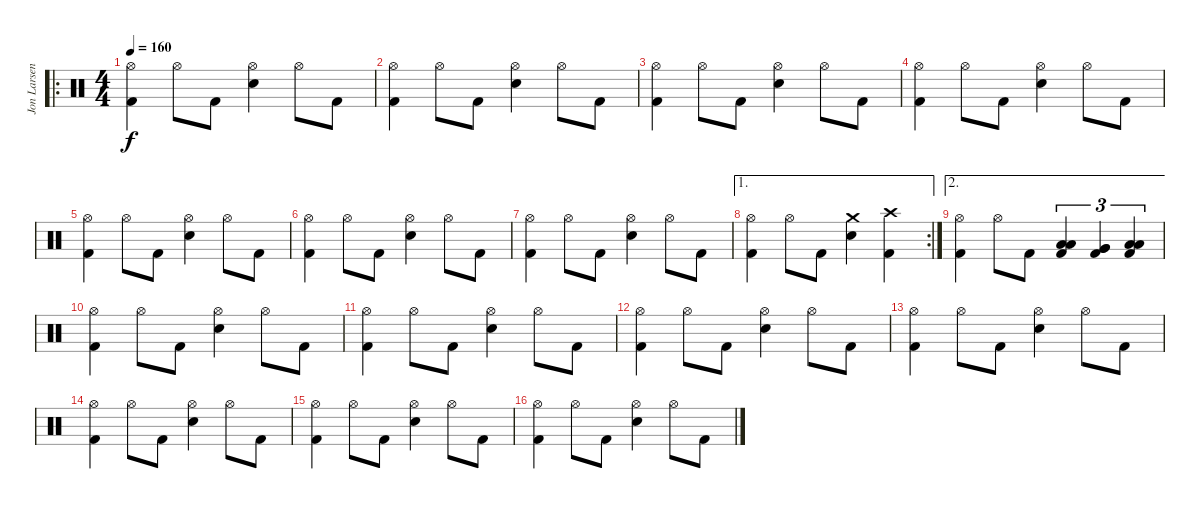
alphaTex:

\track ("Jon Larsen" "Jon Larsen") {instrument percussion}
\staff {score}
\articulation defaults
\ro
\ts (4 4)
\tempo 160
\clef neutral
\ks c
("Hi-Hat (open)" "Kick (hit) 2").4{dy f} "Hi-Hat (open)".8 "Kick (hit) 2".8 ("Hi-Hat (open)" "Electric Snare (hit)").4 "Hi-Hat (open)".8 "Kick (hit) 2".8 |
("Hi-Hat (open)" "Kick (hit) 2").4 "Hi-Hat (open)".8 "Kick (hit) 2".8 ("Hi-Hat (open)" "Electric Snare (hit)").4 "Hi-Hat (open)".8 "Kick (hit) 2".8 |
("Hi-Hat (open)" "Kick (hit) 2").4 "Hi-Hat (open)".8 "Kick (hit) 2".8 ("Hi-Hat (open)" "Electric Snare (hit)").4 "Hi-Hat (open)".8 "Kick (hit) 2".8 |
("Hi-Hat (open)" "Kick (hit) 2").4 "Hi-Hat (open)".8 "Kick (hit) 2".8 ("Hi-Hat (open)" "Electric Snare (hit)").4 "Hi-Hat (open)".8 "Kick (hit) 2".8 |
("Hi-Hat (open)" "Kick (hit) 2").4 "Hi-Hat (open)".8 "Kick (hit) 2".8 ("Hi-Hat (open)" "Electric Snare (hit)").4 "Hi-Hat (open)".8 "Kick (hit) 2".8 |
("Hi-Hat (open)" "Kick (hit) 2").4 "Hi-Hat (open)".8 "Kick (hit) 2".8 ("Hi-Hat (open)" "Electric Snare (hit)").4 "Hi-Hat (open)".8 "Kick (hit) 2".8 |
("Hi-Hat (open)" "Kick (hit) 2").4 "Hi-Hat (open)".8 "Kick (hit) 2".8 ("Hi-Hat (open)" "Electric Snare (hit)").4 "Hi-Hat (open)".8 "Kick (hit) 2".8 |
\ae 1
\rc 2
("Hi-Hat (open)" "Kick (hit) 2").4 "Hi-Hat (open)".8 "Kick (hit) 2".8 ("Crash medium (hit)" "Electric Snare (hit)").4 ("Crash high (hit)" "Kick (hit) 2").4 |
\ae 2
("Hi-Hat (open)" "Kick (hit) 2").4 "Hi-Hat (open)".8 "Kick (hit) 2".8 ("Low Tom (hit)" "Low Tom (hit)" "Kick (hit) 2").4{tu (3 2)} ("Very Low Tom (hit)" "Very Low Tom (hit)" "Kick (hit) 2").4{tu (3 2)} ("Low Floor Tom (hit)" "Low Floor Tom (hit)" "Kick (hit) 2").4{tu (3 2)} |
("Hi-Hat (open)" "Kick (hit) 2").4 "Hi-Hat (open)".8 "Kick (hit) 2".8 ("Hi-Hat (open)" "Electric Snare (hit)").4 "Hi-Hat (open)".8 "Kick (hit) 2".8 |
("Hi-Hat (open)" "Kick (hit) 2").4 "Hi-Hat (open)".8 "Kick (hit) 2".8 ("Hi-Hat (open)" "Electric Snare (hit)").4 "Hi-Hat (open)".8 "Kick (hit) 2".8 |
("Hi-Hat (open)" "Kick (hit) 2").4 "Hi-Hat (open)".8 "Kick (hit) 2".8 ("Hi-Hat (open)" "Electric Snare (hit)").4 "Hi-Hat (open)".8 "Kick (hit) 2".8 |
("Hi-Hat (open)" "Kick (hit) 2").4 "Hi-Hat (open)".8 "Kick (hit) 2".8 ("Hi-Hat (open)" "Electric Snare (hit)").4 "Hi-Hat (open)".8 "Kick (hit) 2".8 |
("Hi-Hat (open)" "Kick (hit) 2").4 "Hi-Hat (open)".8 "Kick (hit) 2".8 ("Hi-Hat (open)" "Electric Snare (hit)").4 "Hi-Hat (open)".8 "Kick (hit) 2".8 |
("Hi-Hat (open)" "Kick (hit) 2").4 "Hi-Hat (open)".8 "Kick (hit) 2".8 ("Hi-Hat (open)" "Electric Snare (hit)").4 "Hi-Hat (open)".8 "Kick (hit) 2".8 |
("Hi-Hat (open)" "Kick (hit) 2").4 "Hi-Hat (open)".8 "Kick (hit) 2".8 ("Hi-Hat (open)" "Electric Snare (hit)").4 "Hi-Hat (open)".8 "Kick (hit) 2".8
